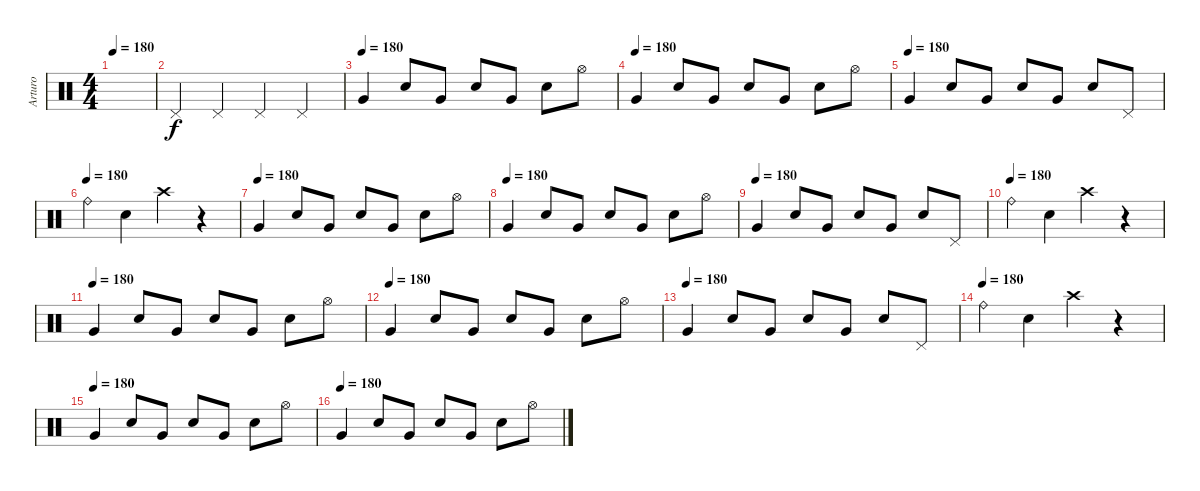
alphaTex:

\track ("Arturo" "Arturo") {instrument percussion}
\staff {score}
\articulation defaults
\ts (4 4)
\tempo 180
\clef neutral
\ks c
|
"Pedal Hi-Hat (hit)".4 "Pedal Hi-Hat (hit)".4 "Pedal Hi-Hat (hit)".4 "Pedal Hi-Hat (hit)".4 |
\tempo (180)
"Very Low Tom (hit)".4 "Electric Snare (hit)".8 "Very Low Tom (hit)".8 "Electric Snare (hit)".8 "Very Low Tom (hit)".8 "Electric Snare (hit)".8 "Hi-Hat (open)".8 |
\tempo (180)
"Very Low Tom (hit)".4 "Electric Snare (hit)".8 "Very Low Tom (hit)".8 "Electric Snare (hit)".8 "Very Low Tom (hit)".8 "Electric Snare (hit)".8 "Hi-Hat (open)".8 |
\tempo (180)
"Very Low Tom (hit)".4 "Electric Snare (hit)".8 "Very Low Tom (hit)".8 "Electric Snare (hit)".8 "Very Low Tom (hit)".8 "Electric Snare (hit)".8 "Pedal Hi-Hat (hit)".8 |
\tempo (180)
"Ride (bell)".4 "Electric Snare (hit)".4 "Crash high (hit)".4 r.4 |
\tempo (180)
"Very Low Tom (hit)".4 "Electric Snare (hit)".8 "Very Low Tom (hit)".8 "Electric Snare (hit)".8 "Very Low Tom (hit)".8 "Electric Snare (hit)".8 "Hi-Hat (open)".8 |
\tempo (180)
"Very Low Tom (hit)".4 "Electric Snare (hit)".8 "Very Low Tom (hit)".8 "Electric Snare (hit)".8 "Very Low Tom (hit)".8 "Electric Snare (hit)".8 "Hi-Hat (open)".8 |
\tempo (180)
"Very Low Tom (hit)".4 "Electric Snare (hit)".8 "Very Low Tom (hit)".8 "Electric Snare (hit)".8 "Very Low Tom (hit)".8 "Electric Snare (hit)".8 "Pedal Hi-Hat (hit)".8 |
\tempo (180)
"Ride (bell)".4 "Electric Snare (hit)".4 "Crash high (hit)".4 r.4 |
\tempo (180)
"Very Low Tom (hit)".4 "Electric Snare (hit)".8 "Very Low Tom (hit)".8 "Electric Snare (hit)".8 "Very Low Tom (hit)".8 "Electric Snare (hit)".8 "Hi-Hat (open)".8 |
\tempo (180)
"Very Low Tom (hit)".4 "Electric Snare (hit)".8 "Very Low Tom (hit)".8 "Electric Snare (hit)".8 "Very Low Tom (hit)".8 "Electric Snare (hit)".8 "Hi-Hat (open)".8 |
\tempo (180)
"Very Low Tom (hit)".4 "Electric Snare (hit)".8 "Very Low Tom (hit)".8 "Electric Snare (hit)".8 "Very Low Tom (hit)".8 "Electric Snare (hit)".8 "Pedal Hi-Hat (hit)".8 |
\tempo (180)
"Ride (bell)".4 "Electric Snare (hit)".4 "Crash high (hit)".4 r.4 |
\tempo (180)
"Very Low Tom (hit)".4 "Electric Snare (hit)".8 "Very Low Tom (hit)".8 "Electric Snare (hit)".8 "Very Low Tom (hit)".8 "Electric Snare (hit)".8 "Hi-Hat (open)".8 |
\tempo (180)
"Very Low Tom (hit)".4 "Electric Snare (hit)".8 "Very Low Tom (hit)".8 "Electric Snare (hit)".8 "Very Low Tom (hit)".8 "Electric Snare (hit)".8 "Hi-Hat (open)".8
